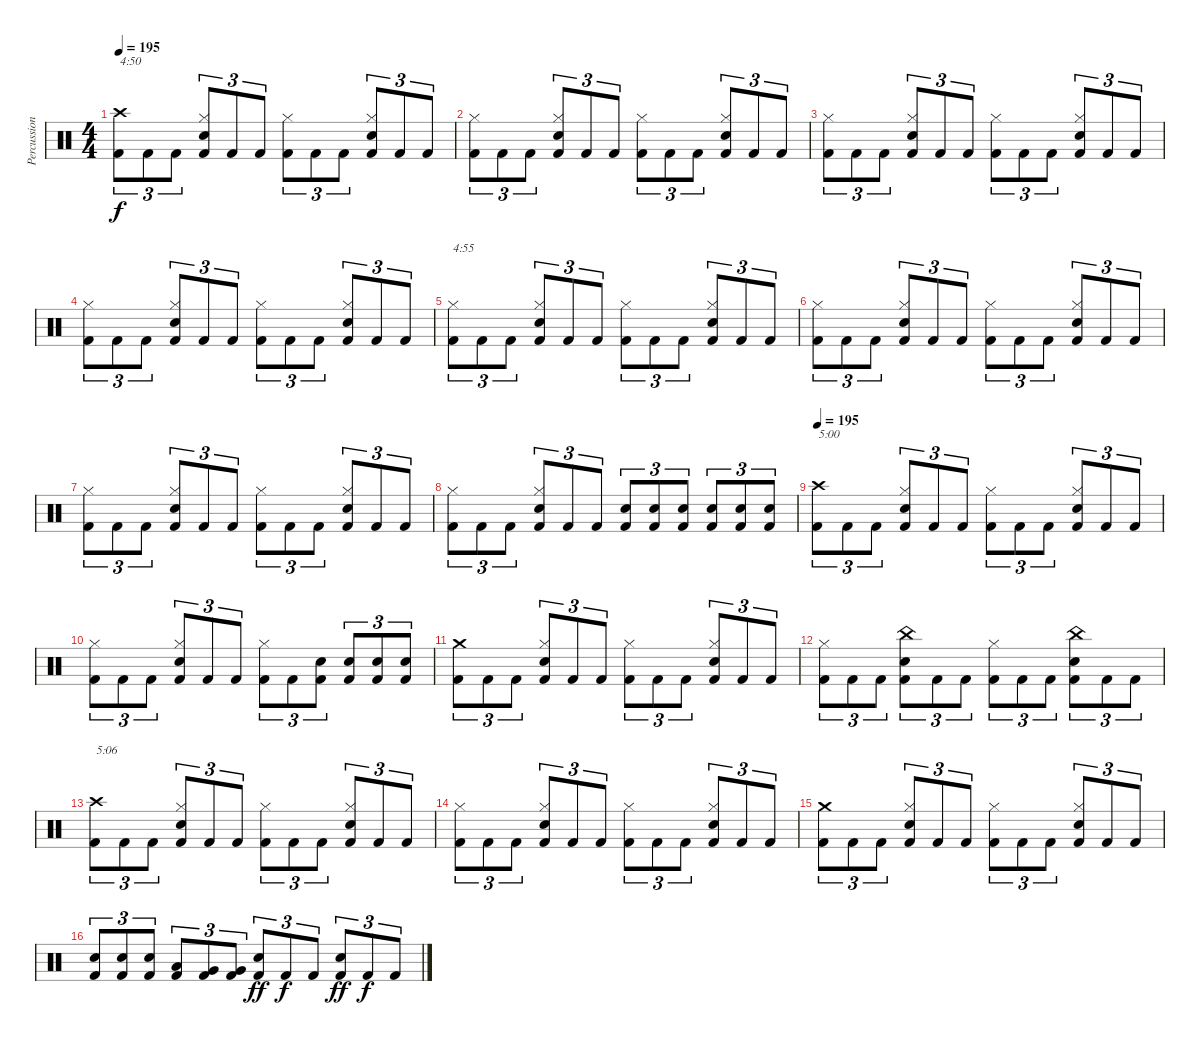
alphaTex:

\track ("Percussion" "Percussion") {instrument percussion}
\staff {score}
\articulation defaults
\ts (4 4)
\tempo 195
\clef neutral
\ks c
("Crash high (hit)" "Kick (hit) 2").8{tu (3 2) txt "4:50" dy f} "Kick (hit) 2".8{tu (3 2)} "Kick (hit) 2".8{tu (3 2)} ("Hi-Hat (closed)" "Snare (hit) 2" "Kick (hit) 2").8{tu (3 2)} "Kick (hit) 2".8{tu (3 2)} "Kick (hit) 2".8{tu (3 2)} ("Hi-Hat (closed)" "Kick (hit) 2").8{tu (3 2)} "Kick (hit) 2".8{tu (3 2)} "Kick (hit) 2".8{tu (3 2)} ("Hi-Hat (closed)" "Snare (hit) 2" "Kick (hit) 2").8{tu (3 2)} "Kick (hit) 2".8{tu (3 2)} "Kick (hit) 2".8{tu (3 2)} |
("Hi-Hat (closed)" "Kick (hit) 2").8{tu (3 2)} "Kick (hit) 2".8{tu (3 2)} "Kick (hit) 2".8{tu (3 2)} ("Hi-Hat (closed)" "Snare (hit) 2" "Kick (hit) 2").8{tu (3 2)} "Kick (hit) 2".8{tu (3 2)} "Kick (hit) 2".8{tu (3 2)} ("Hi-Hat (closed)" "Kick (hit) 2").8{tu (3 2)} "Kick (hit) 2".8{tu (3 2)} "Kick (hit) 2".8{tu (3 2)} ("Hi-Hat (closed)" "Snare (hit) 2" "Kick (hit) 2").8{tu (3 2)} "Kick (hit) 2".8{tu (3 2)} "Kick (hit) 2".8{tu (3 2)} |
("Hi-Hat (closed)" "Kick (hit) 2").8{tu (3 2)} "Kick (hit) 2".8{tu (3 2)} "Kick (hit) 2".8{tu (3 2)} ("Hi-Hat (closed)" "Snare (hit) 2" "Kick (hit) 2").8{tu (3 2)} "Kick (hit) 2".8{tu (3 2)} "Kick (hit) 2".8{tu (3 2)} ("Hi-Hat (closed)" "Kick (hit) 2").8{tu (3 2)} "Kick (hit) 2".8{tu (3 2)} "Kick (hit) 2".8{tu (3 2)} ("Hi-Hat (closed)" "Snare (hit) 2" "Kick (hit) 2").8{tu (3 2)} "Kick (hit) 2".8{tu (3 2)} "Kick (hit) 2".8{tu (3 2)} |
("Hi-Hat (closed)" "Kick (hit) 2").8{tu (3 2)} "Kick (hit) 2".8{tu (3 2)} "Kick (hit) 2".8{tu (3 2)} ("Hi-Hat (closed)" "Snare (hit) 2" "Kick (hit) 2").8{tu (3 2)} "Kick (hit) 2".8{tu (3 2)} "Kick (hit) 2".8{tu (3 2)} ("Hi-Hat (closed)" "Kick (hit) 2").8{tu (3 2)} "Kick (hit) 2".8{tu (3 2)} "Kick (hit) 2".8{tu (3 2)} ("Hi-Hat (closed)" "Snare (hit) 2" "Kick (hit) 2").8{tu (3 2)} "Kick (hit) 2".8{tu (3 2)} "Kick (hit) 2".8{tu (3 2)} |
("Hi-Hat (closed)" "Kick (hit) 2").8{tu (3 2) txt "4:55"} "Kick (hit) 2".8{tu (3 2)} "Kick (hit) 2".8{tu (3 2)} ("Hi-Hat (closed)" "Snare (hit) 2" "Kick (hit) 2").8{tu (3 2)} "Kick (hit) 2".8{tu (3 2)} "Kick (hit) 2".8{tu (3 2)} ("Hi-Hat (closed)" "Kick (hit) 2").8{tu (3 2)} "Kick (hit) 2".8{tu (3 2)} "Kick (hit) 2".8{tu (3 2)} ("Hi-Hat (closed)" "Snare (hit) 2" "Kick (hit) 2").8{tu (3 2)} "Kick (hit) 2".8{tu (3 2)} "Kick (hit) 2".8{tu (3 2)} |
("Hi-Hat (closed)" "Kick (hit) 2").8{tu (3 2)} "Kick (hit) 2".8{tu (3 2)} "Kick (hit) 2".8{tu (3 2)} ("Hi-Hat (closed)" "Snare (hit) 2" "Kick (hit) 2").8{tu (3 2)} "Kick (hit) 2".8{tu (3 2)} "Kick (hit) 2".8{tu (3 2)} ("Hi-Hat (closed)" "Kick (hit) 2").8{tu (3 2)} "Kick (hit) 2".8{tu (3 2)} "Kick (hit) 2".8{tu (3 2)} ("Hi-Hat (closed)" "Snare (hit) 2" "Kick (hit) 2").8{tu (3 2)} "Kick (hit) 2".8{tu (3 2)} "Kick (hit) 2".8{tu (3 2)} |
("Hi-Hat (closed)" "Kick (hit) 2").8{tu (3 2)} "Kick (hit) 2".8{tu (3 2)} "Kick (hit) 2".8{tu (3 2)} ("Hi-Hat (closed)" "Snare (hit) 2" "Kick (hit) 2").8{tu (3 2)} "Kick (hit) 2".8{tu (3 2)} "Kick (hit) 2".8{tu (3 2)} ("Hi-Hat (closed)" "Kick (hit) 2").8{tu (3 2)} "Kick (hit) 2".8{tu (3 2)} "Kick (hit) 2".8{tu (3 2)} ("Hi-Hat (closed)" "Snare (hit) 2" "Kick (hit) 2").8{tu (3 2)} "Kick (hit) 2".8{tu (3 2)} "Kick (hit) 2".8{tu (3 2)} |
("Hi-Hat (closed)" "Kick (hit) 2").8{tu (3 2)} "Kick (hit) 2".8{tu (3 2)} "Kick (hit) 2".8{tu (3 2)} ("Hi-Hat (closed)" "Snare (hit) 2" "Kick (hit) 2").8{tu (3 2)} "Kick (hit) 2".8{tu (3 2)} "Kick (hit) 2".8{tu (3 2)} ("Snare (hit) 2" "Kick (hit) 2").8{tu (3 2)} ("Snare (hit) 2" "Kick (hit) 2").8{tu (3 2)} ("Snare (hit) 2" "Kick (hit) 2").8{tu (3 2)} ("Snare (hit) 2" "Kick (hit) 2").8{tu (3 2)} ("Snare (hit) 2" "Kick (hit) 2").8{tu (3 2)} ("Snare (hit) 2" "Kick (hit) 2").8{tu (3 2)} |
\tempo 195
("Crash high (hit)" "Kick (hit) 2").8{tu (3 2) txt "5:00"} "Kick (hit) 2".8{tu (3 2)} "Kick (hit) 2".8{tu (3 2)} ("Hi-Hat (closed)" "Snare (hit) 2" "Kick (hit) 2").8{tu (3 2)} "Kick (hit) 2".8{tu (3 2)} "Kick (hit) 2".8{tu (3 2)} ("Hi-Hat (closed)" "Kick (hit) 2").8{tu (3 2)} "Kick (hit) 2".8{tu (3 2)} "Kick (hit) 2".8{tu (3 2)} ("Hi-Hat (closed)" "Snare (hit) 2" "Kick (hit) 2").8{tu (3 2)} "Kick (hit) 2".8{tu (3 2)} "Kick (hit) 2".8{tu (3 2)} |
("Hi-Hat (closed)" "Kick (hit) 2").8{tu (3 2)} "Kick (hit) 2".8{tu (3 2)} "Kick (hit) 2".8{tu (3 2)} ("Hi-Hat (closed)" "Snare (hit) 2" "Kick (hit) 2").8{tu (3 2)} "Kick (hit) 2".8{tu (3 2)} "Kick (hit) 2".8{tu (3 2)} ("Hi-Hat (closed)" "Kick (hit) 2").8{tu (3 2)} "Kick (hit) 2".8{tu (3 2)} ("Snare (hit) 2" "Kick (hit) 2").8{tu (3 2)} ("Snare (hit) 2" "Kick (hit) 2").8{tu (3 2)} ("Snare (hit) 2" "Kick (hit) 2").8{tu (3 2)} ("Snare (hit) 2" "Kick (hit) 2").8{tu (3 2)} |
("Crash medium (hit)" "Kick (hit) 2").8{tu (3 2)} "Kick (hit) 2".8{tu (3 2)} "Kick (hit) 2".8{tu (3 2)} ("Hi-Hat (closed)" "Snare (hit) 2" "Kick (hit) 2").8{tu (3 2)} "Kick (hit) 2".8{tu (3 2)} "Kick (hit) 2".8{tu (3 2)} ("Hi-Hat (closed)" "Kick (hit) 2").8{tu (3 2)} "Kick (hit) 2".8{tu (3 2)} "Kick (hit) 2".8{tu (3 2)} ("Hi-Hat (closed)" "Snare (hit) 2" "Kick (hit) 2").8{tu (3 2)} "Kick (hit) 2".8{tu (3 2)} "Kick (hit) 2".8{tu (3 2)} |
("Hi-Hat (closed)" "Kick (hit) 2").8{tu (3 2)} "Kick (hit) 2".8{tu (3 2)} "Kick (hit) 2".8{tu (3 2)} ("China (hit)" "Snare (hit) 2" "Kick (hit) 2").8{tu (3 2)} "Kick (hit) 2".8{tu (3 2)} "Kick (hit) 2".8{tu (3 2)} ("Hi-Hat (closed)" "Kick (hit) 2").8{tu (3 2)} "Kick (hit) 2".8{tu (3 2)} "Kick (hit) 2".8{tu (3 2)} ("China (hit)" "Snare (hit) 2" "Kick (hit) 2").8{tu (3 2)} "Kick (hit) 2".8{tu (3 2)} "Kick (hit) 2".8{tu (3 2)} |
("Crash high (hit)" "Kick (hit) 2").8{tu (3 2) txt "5:06"} "Kick (hit) 2".8{tu (3 2)} "Kick (hit) 2".8{tu (3 2)} ("Hi-Hat (closed)" "Snare (hit) 2" "Kick (hit) 2").8{tu (3 2)} "Kick (hit) 2".8{tu (3 2)} "Kick (hit) 2".8{tu (3 2)} ("Hi-Hat (closed)" "Kick (hit) 2").8{tu (3 2)} "Kick (hit) 2".8{tu (3 2)} "Kick (hit) 2".8{tu (3 2)} ("Hi-Hat (closed)" "Snare (hit) 2" "Kick (hit) 2").8{tu (3 2)} "Kick (hit) 2".8{tu (3 2)} "Kick (hit) 2".8{tu (3 2)} |
("Hi-Hat (closed)" "Kick (hit) 2").8{tu (3 2)} "Kick (hit) 2".8{tu (3 2)} "Kick (hit) 2".8{tu (3 2)} ("Hi-Hat (closed)" "Snare (hit) 2" "Kick (hit) 2").8{tu (3 2)} "Kick (hit) 2".8{tu (3 2)} "Kick (hit) 2".8{tu (3 2)} ("Hi-Hat (closed)" "Kick (hit) 2").8{tu (3 2)} "Kick (hit) 2".8{tu (3 2)} "Kick (hit) 2".8{tu (3 2)} ("Hi-Hat (closed)" "Snare (hit) 2" "Kick (hit) 2").8{tu (3 2)} "Kick (hit) 2".8{tu (3 2)} "Kick (hit) 2".8{tu (3 2)} |
("Crash medium (hit)" "Kick (hit) 2").8{tu (3 2)} "Kick (hit) 2".8{tu (3 2)} "Kick (hit) 2".8{tu (3 2)} ("Hi-Hat (closed)" "Snare (hit) 2" "Kick (hit) 2").8{tu (3 2)} "Kick (hit) 2".8{tu (3 2)} "Kick (hit) 2".8{tu (3 2)} ("Hi-Hat (closed)" "Kick (hit) 2").8{tu (3 2)} "Kick (hit) 2".8{tu (3 2)} "Kick (hit) 2".8{tu (3 2)} ("Hi-Hat (closed)" "Snare (hit) 2" "Kick (hit) 2").8{tu (3 2)} "Kick (hit) 2".8{tu (3 2)} "Kick (hit) 2".8{tu (3 2)} |
("Snare (hit) 2" "Kick (hit) 2").8{tu (3 2)} ("Snare (hit) 2" "Kick (hit) 2").8{tu (3 2)} ("Snare (hit) 2" "Kick (hit) 2").8{tu (3 2)} ("Low Tom (hit)" "Kick (hit) 2").8{tu (3 2)} ("Very Low Tom (hit)" "Kick (hit) 2").8{tu (3 2)} ("Very Low Tom (hit)" "Kick (hit) 2").8{tu (3 2)} ("Snare (hit) 2" "Kick (hit) 2").8{tu (3 2) dy ff} "Kick (hit) 2".8{tu (3 2) dy f} "Kick (hit) 2".8{tu (3 2)} ("Snare (hit) 2" "Kick (hit) 2").8{tu (3 2) dy ff} "Kick (hit) 2".8{tu (3 2) dy f} "Kick (hit) 2".8{tu (3 2)}
